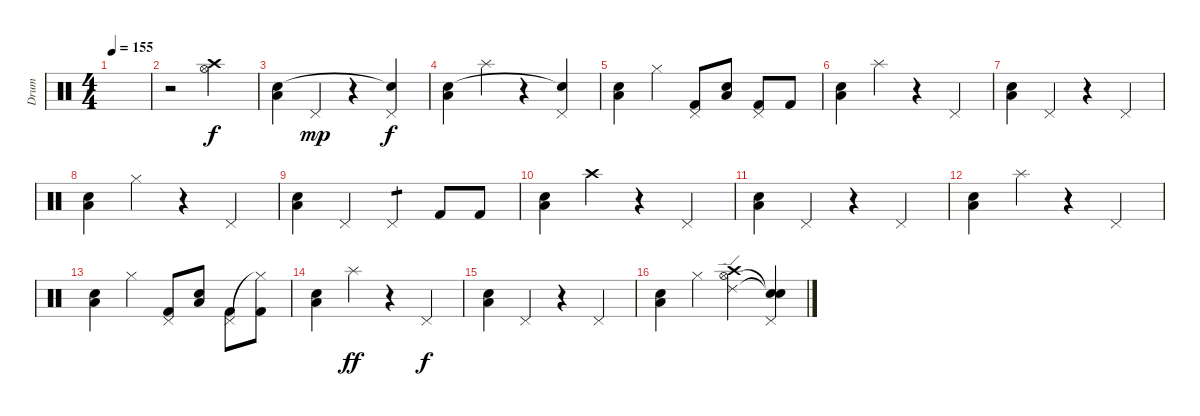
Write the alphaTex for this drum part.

\track ("Drum" "Drum") {instrument percussion}
\staff {score}
\articulation defaults
\ts (4 4)
\tempo 155
\clef neutral
\ks c
|
r.2 ("Hi-Hat (open)" "Crash high (hit)").2 |
("Low Floor Tom (hit)" "Snare (hit) 2").4 "Pedal Hi-Hat (hit)".4{dy mp} r.4 ("Pedal Hi-Hat (hit)" "Snare (hit)"{t}).4{dy f} |
("Low Floor Tom (hit)" "Snare (hit) 2").4 "Splash (hit)".4 r.4 ("Pedal Hi-Hat (hit)" "Snare (hit)"{t}).4 |
("Low Floor Tom (hit)" "Snare (hit) 2").4 "Hi-Hat (closed)".4 ("Pedal Hi-Hat (hit)" "Kick (hit) 2").8 ("Low Floor Tom (hit)" "Snare (hit) 2").8 ("Pedal Hi-Hat (hit)" "Kick (hit) 2").8 "Kick (hit) 2".8 |
("Low Floor Tom (hit)" "Snare (hit) 2").4 "Splash (hit)".4 r.4 "Pedal Hi-Hat (hit)".4 |
("Low Floor Tom (hit)" "Snare (hit) 2").4 "Pedal Hi-Hat (hit)".4 r.4 "Pedal Hi-Hat (hit)".4 |
("Low Floor Tom (hit)" "Snare (hit) 2").4 "Hi-Hat (closed)".4 r.4 "Pedal Hi-Hat (hit)".4 |
("Low Floor Tom (hit)" "Snare (hit) 2").4 "Pedal Hi-Hat (hit)".4 "Pedal Hi-Hat (hit)".4{tp 1} "Kick (hit) 2".8 "Kick (hit) 2".8 |
("Low Floor Tom (hit)" "Snare (hit) 2").4 "Crash high (hit)".4 r.4 "Pedal Hi-Hat (hit)".4 |
("Low Floor Tom (hit)" "Snare (hit) 2").4 "Pedal Hi-Hat (hit)".4 r.4 "Pedal Hi-Hat (hit)".4 |
("Low Floor Tom (hit)" "Snare (hit) 2").4 "Splash (hit)".4 r.4 "Pedal Hi-Hat (hit)".4 |
("Low Floor Tom (hit)" "Snare (hit) 2").4 "Hi-Hat (closed)".4 ("Pedal Hi-Hat (hit)" "Kick (hit) 2").8 ("Low Floor Tom (hit)" "Snare (hit) 2").8 ("Pedal Hi-Hat (hit)" "Kick (hit) 2").8 ("Hi-Hat (closed)"{t} "Kick (hit) 2").8 |
("Low Floor Tom (hit)" "Snare (hit) 2").4 "Splash (hit)".4{dy ff} r.4 "Pedal Hi-Hat (hit)".4{dy f} |
("Low Floor Tom (hit)" "Snare (hit) 2").4 "Pedal Hi-Hat (hit)".4 r.4 "Pedal Hi-Hat (hit)".4 |
("Low Floor Tom (hit)" "Snare (hit) 2").4 "Hi-Hat (closed)".4 ("Ride (edge) 2" "Hi-Hat (open)" "Crash high (hit)").4 ("Snare (hit)"{t} "Snare (hit)"{t} "Pedal Hi-Hat (hit)").4
